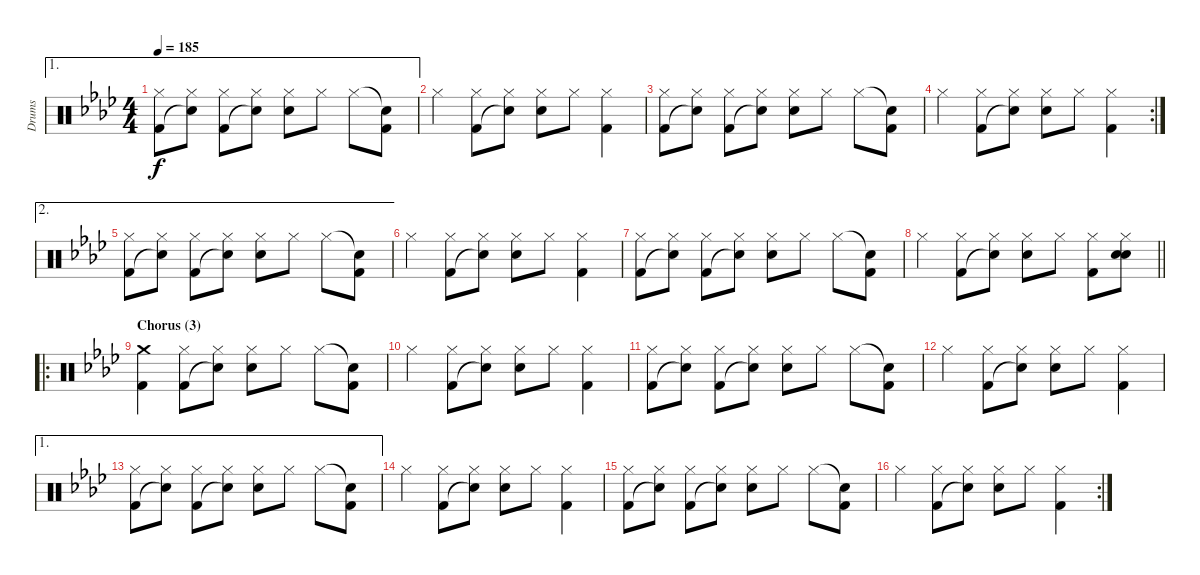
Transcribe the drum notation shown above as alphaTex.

\track ("Drums" "Drums") {instrument percussion}
\staff {score}
\articulation defaults
\ae 1
\ts (4 4)
\tempo 185
\clef neutral
\ks fminor
("Hi-Hat (closed)" "Kick (hit) 2").8{dy f} ("Hi-Hat (closed)" "Snare (hit)"{t}).8 ("Hi-Hat (closed)" "Kick (hit) 2").8 ("Hi-Hat (closed)" "Snare (hit)"{t}).8 ("Hi-Hat (closed)" "Electric Snare (hit)").8 "Hi-Hat (closed)".8 "Hi-Hat (closed)".8 ("Snare (hit)"{t} "Kick (hit) 2").8 |
"Hi-Hat (closed)".4 ("Hi-Hat (closed)" "Kick (hit) 2").8 ("Hi-Hat (closed)" "Snare (hit)"{t}).8 ("Hi-Hat (closed)" "Electric Snare (hit)").8 "Hi-Hat (closed)".8 ("Hi-Hat (closed)" "Kick (hit) 2").4 |
("Hi-Hat (closed)" "Kick (hit) 2").8 ("Hi-Hat (closed)" "Snare (hit)"{t}).8 ("Hi-Hat (closed)" "Kick (hit) 2").8 ("Hi-Hat (closed)" "Snare (hit)"{t}).8 ("Hi-Hat (closed)" "Electric Snare (hit)").8 "Hi-Hat (closed)".8 "Hi-Hat (closed)".8 ("Snare (hit)"{t} "Kick (hit) 2").8 |
\rc 2 "Hi-Hat (closed)".4
("Hi-Hat (closed)" "Kick (hit) 2").8 ("Hi-Hat (closed)" "Snare (hit)"{t}).8 ("Hi-Hat (closed)" "Electric Snare (hit)").8 "Hi-Hat (closed)".8 ("Hi-Hat (closed)" "Kick (hit) 2").4 |
\ae 2
("Hi-Hat (closed)" "Kick (hit) 2").8 ("Hi-Hat (closed)" "Snare (hit)"{t}).8 ("Hi-Hat (closed)" "Kick (hit) 2").8 ("Hi-Hat (closed)" "Snare (hit)"{t}).8 ("Hi-Hat (closed)" "Electric Snare (hit)").8 "Hi-Hat (closed)".8 "Hi-Hat (closed)".8 ("Snare (hit)"{t} "Kick (hit) 2").8 |
"Hi-Hat (closed)".4 ("Hi-Hat (closed)" "Kick (hit) 2").8 ("Hi-Hat (closed)" "Snare (hit)"{t}).8 ("Hi-Hat (closed)" "Electric Snare (hit)").8 "Hi-Hat (closed)".8 ("Hi-Hat (closed)" "Kick (hit) 2").4 |
("Hi-Hat (closed)" "Kick (hit) 2").8 ("Hi-Hat (closed)" "Snare (hit)"{t}).8 ("Hi-Hat (closed)" "Kick (hit) 2").8 ("Hi-Hat (closed)" "Snare (hit)"{t}).8 ("Hi-Hat (closed)" "Electric Snare (hit)").8 "Hi-Hat (closed)".8 "Hi-Hat (closed)".8 ("Snare (hit)"{t} "Kick (hit) 2").8 |
\barLineRight lightlight "Hi-Hat (closed)".4
("Hi-Hat (closed)" "Kick (hit) 2").8 ("Hi-Hat (closed)" "Snare (hit)"{t}).8 ("Hi-Hat (closed)" "Electric Snare (hit)").8 "Hi-Hat (closed)".8 ("Hi-Hat (closed)" "Kick (hit) 2").8 ("Hi-Hat (closed)" "Electric Snare (hit)" "Snare (hit)").8 |
\ro
\section ("" "Chorus (3)")
("Crash medium (hit)" "Kick (hit) 2").4 ("Hi-Hat (closed)" "Kick (hit) 2").8 ("Hi-Hat (closed)" "Snare (hit)"{t}).8 ("Hi-Hat (closed)" "Electric Snare (hit)").8 "Hi-Hat (closed)".8 "Hi-Hat (closed)".8 ("Snare (hit)"{t} "Kick (hit) 2").8 |
"Hi-Hat (closed)".4 ("Hi-Hat (closed)" "Kick (hit) 2").8 ("Hi-Hat (closed)" "Snare (hit)"{t}).8 ("Hi-Hat (closed)" "Electric Snare (hit)").8 "Hi-Hat (closed)".8 ("Hi-Hat (closed)" "Kick (hit) 2").4 |
("Hi-Hat (closed)" "Kick (hit) 2").8 ("Hi-Hat (closed)" "Snare (hit)"{t}).8 ("Hi-Hat (closed)" "Kick (hit) 2").8 ("Hi-Hat (closed)" "Snare (hit)"{t}).8 ("Hi-Hat (closed)" "Electric Snare (hit)").8 "Hi-Hat (closed)".8 "Hi-Hat (closed)".8 ("Snare (hit)"{t} "Kick (hit) 2").8 |
"Hi-Hat (closed)".4 ("Hi-Hat (closed)" "Kick (hit) 2").8 ("Hi-Hat (closed)" "Snare (hit)"{t}).8 ("Hi-Hat (closed)" "Electric Snare (hit)").8 "Hi-Hat (closed)".8 ("Hi-Hat (closed)" "Kick (hit) 2").4 |
\ae 1
("Hi-Hat (closed)" "Kick (hit) 2").8 ("Hi-Hat (closed)" "Snare (hit)"{t}).8 ("Hi-Hat (closed)" "Kick (hit) 2").8 ("Hi-Hat (closed)" "Snare (hit)"{t}).8 ("Hi-Hat (closed)" "Electric Snare (hit)").8 "Hi-Hat (closed)".8 "Hi-Hat (closed)".8 ("Snare (hit)"{t} "Kick (hit) 2").8 |
"Hi-Hat (closed)".4 ("Hi-Hat (closed)" "Kick (hit) 2").8 ("Hi-Hat (closed)" "Snare (hit)"{t}).8 ("Hi-Hat (closed)" "Electric Snare (hit)").8 "Hi-Hat (closed)".8 ("Hi-Hat (closed)" "Kick (hit) 2").4 |
("Hi-Hat (closed)" "Kick (hit) 2").8 ("Hi-Hat (closed)" "Snare (hit)"{t}).8 ("Hi-Hat (closed)" "Kick (hit) 2").8 ("Hi-Hat (closed)" "Snare (hit)"{t}).8 ("Hi-Hat (closed)" "Electric Snare (hit)").8 "Hi-Hat (closed)".8 "Hi-Hat (closed)".8 ("Snare (hit)"{t} "Kick (hit) 2").8 |
\rc 2 "Hi-Hat (closed)".4
("Hi-Hat (closed)" "Kick (hit) 2").8 ("Hi-Hat (closed)" "Snare (hit)"{t}).8 ("Hi-Hat (closed)" "Electric Snare (hit)").8 "Hi-Hat (closed)".8 ("Hi-Hat (closed)" "Kick (hit) 2").4
